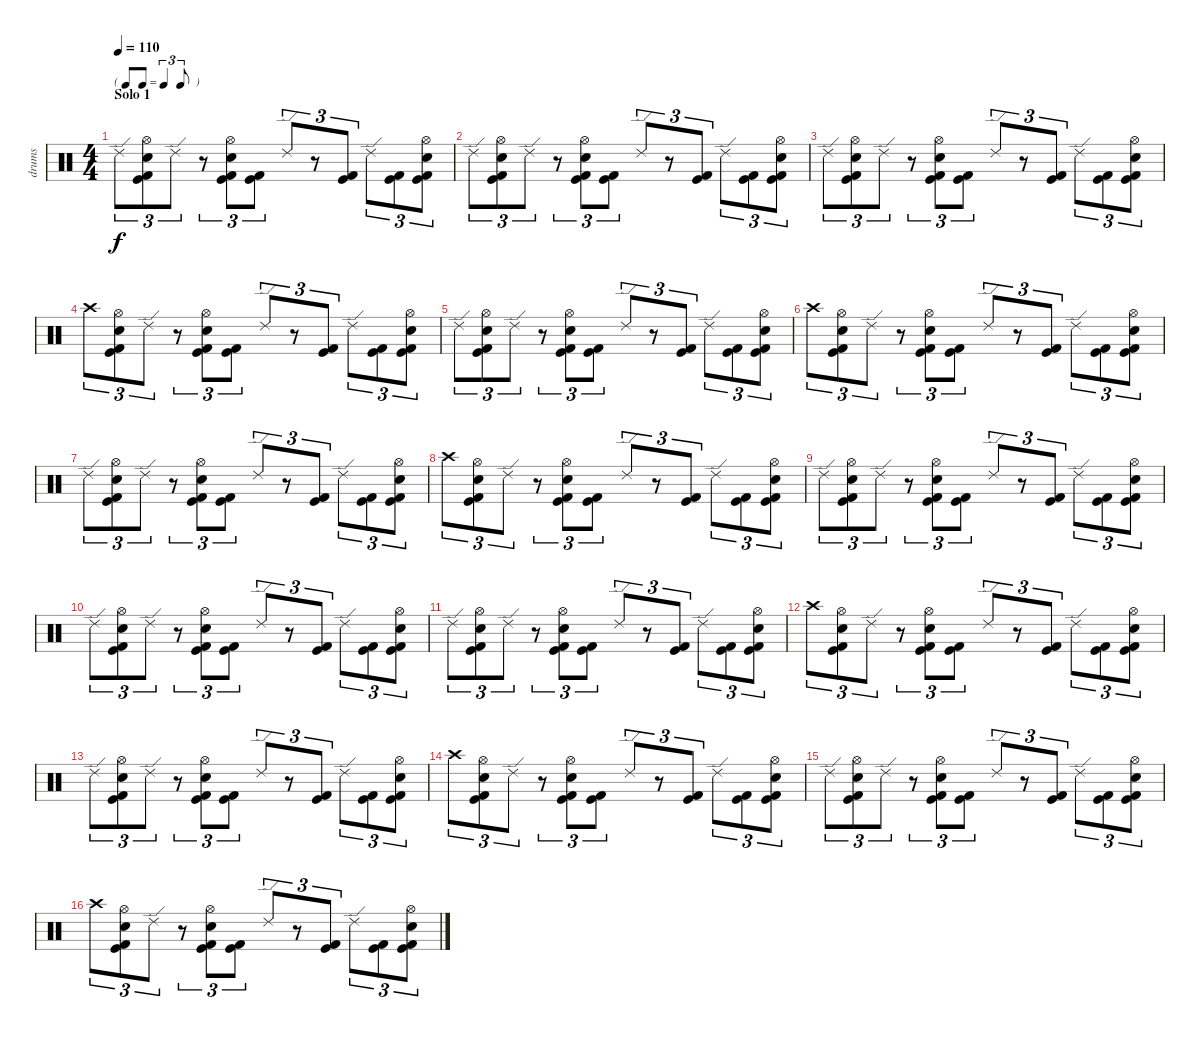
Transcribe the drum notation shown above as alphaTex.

\track ("drums" "drums") {instrument percussion}
\staff {score}
\articulation defaults
\ts (4 4)
\tf triplet8th
\section ("" "Solo 1")
\tempo 110
\clef neutral
\ks c "Ride (edge) 2".8{tu (3 2) dy f}
("Hi-Hat (open)" "Electric Snare (hit)" "Kick (hit) 2" "Kick (hit)").8{tu (3 2)} "Ride (edge) 2".8{tu (3 2)} r.8{tu (3 2)} ("Hi-Hat (open)" "Electric Snare (hit)" "Kick (hit) 2" "Kick (hit)").8{tu (3 2)} ("Kick (hit) 2" "Kick (hit)").8{tu (3 2)} "Ride (edge) 2".8{tu (3 2)} r.8{tu (3 2)} ("Kick (hit) 2" "Kick (hit)").8{tu (3 2)} "Ride (edge) 2".8{tu (3 2)} ("Kick (hit) 2" "Kick (hit)").8{tu (3 2)} ("Hi-Hat (open)" "Electric Snare (hit)" "Kick (hit) 2" "Kick (hit)").8{tu (3 2)} |
"Ride (edge) 2".8{tu (3 2)} ("Hi-Hat (open)" "Electric Snare (hit)" "Kick (hit) 2" "Kick (hit)").8{tu (3 2)} "Ride (edge) 2".8{tu (3 2)} r.8{tu (3 2)} ("Hi-Hat (open)" "Electric Snare (hit)" "Kick (hit) 2" "Kick (hit)").8{tu (3 2)} ("Kick (hit) 2" "Kick (hit)").8{tu (3 2)} "Ride (edge) 2".8{tu (3 2)} r.8{tu (3 2)} ("Kick (hit) 2" "Kick (hit)").8{tu (3 2)} "Ride (edge) 2".8{tu (3 2)} ("Kick (hit) 2" "Kick (hit)").8{tu (3 2)} ("Hi-Hat (open)" "Electric Snare (hit)" "Kick (hit) 2" "Kick (hit)").8{tu (3 2)} |
"Ride (edge) 2".8{tu (3 2)} ("Hi-Hat (open)" "Electric Snare (hit)" "Kick (hit) 2" "Kick (hit)").8{tu (3 2)} "Ride (edge) 2".8{tu (3 2)} r.8{tu (3 2)} ("Hi-Hat (open)" "Electric Snare (hit)" "Kick (hit) 2" "Kick (hit)").8{tu (3 2)} ("Kick (hit) 2" "Kick (hit)").8{tu (3 2)} "Ride (edge) 2".8{tu (3 2)} r.8{tu (3 2)} ("Kick (hit) 2" "Kick (hit)").8{tu (3 2)} "Ride (edge) 2".8{tu (3 2)} ("Kick (hit) 2" "Kick (hit)").8{tu (3 2)} ("Hi-Hat (open)" "Electric Snare (hit)" "Kick (hit) 2" "Kick (hit)").8{tu (3 2)} |
"Crash high (hit)".8{tu (3 2)} ("Hi-Hat (open)" "Electric Snare (hit)" "Kick (hit) 2" "Kick (hit)").8{tu (3 2)} "Ride (edge) 2".8{tu (3 2)} r.8{tu (3 2)} ("Hi-Hat (open)" "Electric Snare (hit)" "Kick (hit) 2" "Kick (hit)").8{tu (3 2)} ("Kick (hit) 2" "Kick (hit)").8{tu (3 2)} "Ride (edge) 2".8{tu (3 2)} r.8{tu (3 2)} ("Kick (hit) 2" "Kick (hit)").8{tu (3 2)} "Ride (edge) 2".8{tu (3 2)} ("Kick (hit) 2" "Kick (hit)").8{tu (3 2)} ("Hi-Hat (open)" "Electric Snare (hit)" "Kick (hit) 2" "Kick (hit)").8{tu (3 2)} |
"Ride (edge) 2".8{tu (3 2)} ("Hi-Hat (open)" "Electric Snare (hit)" "Kick (hit) 2" "Kick (hit)").8{tu (3 2)} "Ride (edge) 2".8{tu (3 2)} r.8{tu (3 2)} ("Hi-Hat (open)" "Electric Snare (hit)" "Kick (hit) 2" "Kick (hit)").8{tu (3 2)} ("Kick (hit) 2" "Kick (hit)").8{tu (3 2)} "Ride (edge) 2".8{tu (3 2)} r.8{tu (3 2)} ("Kick (hit) 2" "Kick (hit)").8{tu (3 2)} "Ride (edge) 2".8{tu (3 2)} ("Kick (hit) 2" "Kick (hit)").8{tu (3 2)} ("Hi-Hat (open)" "Electric Snare (hit)" "Kick (hit) 2" "Kick (hit)").8{tu (3 2)} |
"Crash high (hit)".8{tu (3 2)} ("Hi-Hat (open)" "Electric Snare (hit)" "Kick (hit) 2" "Kick (hit)").8{tu (3 2)} "Ride (edge) 2".8{tu (3 2)} r.8{tu (3 2)} ("Hi-Hat (open)" "Electric Snare (hit)" "Kick (hit) 2" "Kick (hit)").8{tu (3 2)} ("Kick (hit) 2" "Kick (hit)").8{tu (3 2)} "Ride (edge) 2".8{tu (3 2)} r.8{tu (3 2)} ("Kick (hit) 2" "Kick (hit)").8{tu (3 2)} "Ride (edge) 2".8{tu (3 2)} ("Kick (hit) 2" "Kick (hit)").8{tu (3 2)} ("Hi-Hat (open)" "Electric Snare (hit)" "Kick (hit) 2" "Kick (hit)").8{tu (3 2)} |
"Ride (edge) 2".8{tu (3 2)} ("Hi-Hat (open)" "Electric Snare (hit)" "Kick (hit) 2" "Kick (hit)").8{tu (3 2)} "Ride (edge) 2".8{tu (3 2)} r.8{tu (3 2)} ("Hi-Hat (open)" "Electric Snare (hit)" "Kick (hit) 2" "Kick (hit)").8{tu (3 2)} ("Kick (hit) 2" "Kick (hit)").8{tu (3 2)} "Ride (edge) 2".8{tu (3 2)} r.8{tu (3 2)} ("Kick (hit) 2" "Kick (hit)").8{tu (3 2)} "Ride (edge) 2".8{tu (3 2)} ("Kick (hit) 2" "Kick (hit)").8{tu (3 2)} ("Hi-Hat (open)" "Electric Snare (hit)" "Kick (hit) 2" "Kick (hit)").8{tu (3 2)} |
"Crash high (hit)".8{tu (3 2)} ("Hi-Hat (open)" "Electric Snare (hit)" "Kick (hit) 2" "Kick (hit)").8{tu (3 2)} "Ride (edge) 2".8{tu (3 2)} r.8{tu (3 2)} ("Hi-Hat (open)" "Electric Snare (hit)" "Kick (hit) 2" "Kick (hit)").8{tu (3 2)} ("Kick (hit) 2" "Kick (hit)").8{tu (3 2)} "Ride (edge) 2".8{tu (3 2)} r.8{tu (3 2)} ("Kick (hit) 2" "Kick (hit)").8{tu (3 2)} "Ride (edge) 2".8{tu (3 2)} ("Kick (hit) 2" "Kick (hit)").8{tu (3 2)} ("Hi-Hat (open)" "Electric Snare (hit)" "Kick (hit) 2" "Kick (hit)").8{tu (3 2)} |
"Ride (edge) 2".8{tu (3 2)} ("Hi-Hat (open)" "Electric Snare (hit)" "Kick (hit) 2" "Kick (hit)").8{tu (3 2)} "Ride (edge) 2".8{tu (3 2)} r.8{tu (3 2)} ("Hi-Hat (open)" "Electric Snare (hit)" "Kick (hit) 2" "Kick (hit)").8{tu (3 2)} ("Kick (hit) 2" "Kick (hit)").8{tu (3 2)} "Ride (edge) 2".8{tu (3 2)} r.8{tu (3 2)} ("Kick (hit) 2" "Kick (hit)").8{tu (3 2)} "Ride (edge) 2".8{tu (3 2)} ("Kick (hit) 2" "Kick (hit)").8{tu (3 2)} ("Hi-Hat (open)" "Electric Snare (hit)" "Kick (hit) 2" "Kick (hit)").8{tu (3 2)} |
"Ride (edge) 2".8{tu (3 2)} ("Hi-Hat (open)" "Electric Snare (hit)" "Kick (hit) 2" "Kick (hit)").8{tu (3 2)} "Ride (edge) 2".8{tu (3 2)} r.8{tu (3 2)} ("Hi-Hat (open)" "Electric Snare (hit)" "Kick (hit) 2" "Kick (hit)").8{tu (3 2)} ("Kick (hit) 2" "Kick (hit)").8{tu (3 2)} "Ride (edge) 2".8{tu (3 2)} r.8{tu (3 2)} ("Kick (hit) 2" "Kick (hit)").8{tu (3 2)} "Ride (edge) 2".8{tu (3 2)} ("Kick (hit) 2" "Kick (hit)").8{tu (3 2)} ("Hi-Hat (open)" "Electric Snare (hit)" "Kick (hit) 2" "Kick (hit)").8{tu (3 2)} |
"Ride (edge) 2".8{tu (3 2)} ("Hi-Hat (open)" "Electric Snare (hit)" "Kick (hit) 2" "Kick (hit)").8{tu (3 2)} "Ride (edge) 2".8{tu (3 2)} r.8{tu (3 2)} ("Hi-Hat (open)" "Electric Snare (hit)" "Kick (hit) 2" "Kick (hit)").8{tu (3 2)} ("Kick (hit) 2" "Kick (hit)").8{tu (3 2)} "Ride (edge) 2".8{tu (3 2)} r.8{tu (3 2)} ("Kick (hit) 2" "Kick (hit)").8{tu (3 2)} "Ride (edge) 2".8{tu (3 2)} ("Kick (hit) 2" "Kick (hit)").8{tu (3 2)} ("Hi-Hat (open)" "Electric Snare (hit)" "Kick (hit) 2" "Kick (hit)").8{tu (3 2)} |
"Crash high (hit)".8{tu (3 2)} ("Hi-Hat (open)" "Electric Snare (hit)" "Kick (hit) 2" "Kick (hit)").8{tu (3 2)} "Ride (edge) 2".8{tu (3 2)} r.8{tu (3 2)} ("Hi-Hat (open)" "Electric Snare (hit)" "Kick (hit) 2" "Kick (hit)").8{tu (3 2)} ("Kick (hit) 2" "Kick (hit)").8{tu (3 2)} "Ride (edge) 2".8{tu (3 2)} r.8{tu (3 2)} ("Kick (hit) 2" "Kick (hit)").8{tu (3 2)} "Ride (edge) 2".8{tu (3 2)} ("Kick (hit) 2" "Kick (hit)").8{tu (3 2)} ("Hi-Hat (open)" "Electric Snare (hit)" "Kick (hit) 2" "Kick (hit)").8{tu (3 2)} |
"Ride (edge) 2".8{tu (3 2)} ("Hi-Hat (open)" "Electric Snare (hit)" "Kick (hit) 2" "Kick (hit)").8{tu (3 2)} "Ride (edge) 2".8{tu (3 2)} r.8{tu (3 2)} ("Hi-Hat (open)" "Electric Snare (hit)" "Kick (hit) 2" "Kick (hit)").8{tu (3 2)} ("Kick (hit) 2" "Kick (hit)").8{tu (3 2)} "Ride (edge) 2".8{tu (3 2)} r.8{tu (3 2)} ("Kick (hit) 2" "Kick (hit)").8{tu (3 2)} "Ride (edge) 2".8{tu (3 2)} ("Kick (hit) 2" "Kick (hit)").8{tu (3 2)} ("Hi-Hat (open)" "Electric Snare (hit)" "Kick (hit) 2" "Kick (hit)").8{tu (3 2)} |
"Crash high (hit)".8{tu (3 2)} ("Hi-Hat (open)" "Electric Snare (hit)" "Kick (hit) 2" "Kick (hit)").8{tu (3 2)} "Ride (edge) 2".8{tu (3 2)} r.8{tu (3 2)} ("Hi-Hat (open)" "Electric Snare (hit)" "Kick (hit) 2" "Kick (hit)").8{tu (3 2)} ("Kick (hit) 2" "Kick (hit)").8{tu (3 2)} "Ride (edge) 2".8{tu (3 2)} r.8{tu (3 2)} ("Kick (hit) 2" "Kick (hit)").8{tu (3 2)} "Ride (edge) 2".8{tu (3 2)} ("Kick (hit) 2" "Kick (hit)").8{tu (3 2)} ("Hi-Hat (open)" "Electric Snare (hit)" "Kick (hit) 2" "Kick (hit)").8{tu (3 2)} |
"Ride (edge) 2".8{tu (3 2)} ("Hi-Hat (open)" "Electric Snare (hit)" "Kick (hit) 2" "Kick (hit)").8{tu (3 2)} "Ride (edge) 2".8{tu (3 2)} r.8{tu (3 2)} ("Hi-Hat (open)" "Electric Snare (hit)" "Kick (hit) 2" "Kick (hit)").8{tu (3 2)} ("Kick (hit) 2" "Kick (hit)").8{tu (3 2)} "Ride (edge) 2".8{tu (3 2)} r.8{tu (3 2)} ("Kick (hit) 2" "Kick (hit)").8{tu (3 2)} "Ride (edge) 2".8{tu (3 2)} ("Kick (hit) 2" "Kick (hit)").8{tu (3 2)} ("Hi-Hat (open)" "Electric Snare (hit)" "Kick (hit) 2" "Kick (hit)").8{tu (3 2)} |
"Crash high (hit)".8{tu (3 2)} ("Hi-Hat (open)" "Electric Snare (hit)" "Kick (hit) 2" "Kick (hit)").8{tu (3 2)} "Ride (edge) 2".8{tu (3 2)} r.8{tu (3 2)} ("Hi-Hat (open)" "Electric Snare (hit)" "Kick (hit) 2" "Kick (hit)").8{tu (3 2)} ("Kick (hit) 2" "Kick (hit)").8{tu (3 2)} "Ride (edge) 2".8{tu (3 2)} r.8{tu (3 2)} ("Kick (hit) 2" "Kick (hit)").8{tu (3 2)} "Ride (edge) 2".8{tu (3 2)} ("Kick (hit) 2" "Kick (hit)").8{tu (3 2)} ("Hi-Hat (open)" "Electric Snare (hit)" "Kick (hit) 2" "Kick (hit)").8{tu (3 2)}
